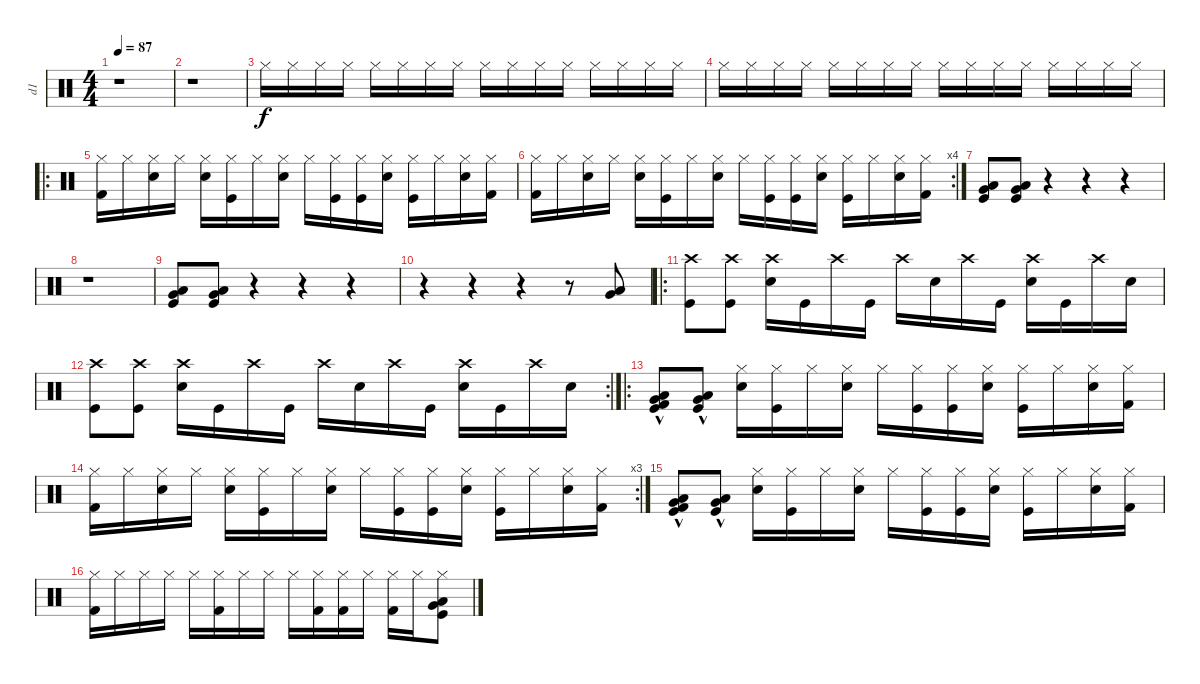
\track ("d1" "d1") {instrument percussion}
\staff {score}
\articulation defaults
\ts (4 4)
\tempo 87
\clef neutral
\ks c
r.1{dy f} |
r.1 |
"Hi-Hat (closed)".16 "Hi-Hat (closed)".16 "Hi-Hat (closed)".16 "Hi-Hat (closed)".16 "Hi-Hat (closed)".16 "Hi-Hat (closed)".16 "Hi-Hat (closed)".16 "Hi-Hat (closed)".16 "Hi-Hat (closed)".16 "Hi-Hat (closed)".16 "Hi-Hat (closed)".16 "Hi-Hat (closed)".16 "Hi-Hat (closed)".16 "Hi-Hat (closed)".16 "Hi-Hat (closed)".16 "Hi-Hat (closed)".16 |
"Hi-Hat (closed)".16 "Hi-Hat (closed)".16 "Hi-Hat (closed)".16 "Hi-Hat (closed)".16 "Hi-Hat (closed)".16 "Hi-Hat (closed)".16 "Hi-Hat (closed)".16 "Hi-Hat (closed)".16 "Hi-Hat (closed)".16 "Hi-Hat (closed)".16 "Hi-Hat (closed)".16 "Hi-Hat (closed)".16 "Hi-Hat (closed)".16 "Hi-Hat (closed)".16 "Hi-Hat (closed)".16 "Hi-Hat (closed)".16 |
\ro
("Hi-Hat (closed)" "Kick (hit) 2").16 "Hi-Hat (closed)".16 ("Hi-Hat (closed)" "Electric Snare (hit)").16 "Hi-Hat (closed)".16 ("Hi-Hat (closed)" "Electric Snare (hit)").16 ("Hi-Hat (closed)" "Kick (hit)").16 "Hi-Hat (closed)".16 ("Hi-Hat (closed)" "Electric Snare (hit)").16 "Hi-Hat (closed)".16 ("Hi-Hat (closed)" "Kick (hit)").16 ("Hi-Hat (closed)" "Kick (hit)").16 ("Hi-Hat (closed)" "Electric Snare (hit)").16 ("Hi-Hat (closed)" "Kick (hit)").16 "Hi-Hat (closed)".16 ("Hi-Hat (closed)" "Electric Snare (hit)").16 ("Hi-Hat (closed)" "Kick (hit) 2").16 |
\rc 4
("Hi-Hat (closed)" "Kick (hit) 2").16 "Hi-Hat (closed)".16 ("Hi-Hat (closed)" "Electric Snare (hit)").16 "Hi-Hat (closed)".16 ("Hi-Hat (closed)" "Electric Snare (hit)").16 ("Hi-Hat (closed)" "Kick (hit)").16 "Hi-Hat (closed)".16 ("Hi-Hat (closed)" "Electric Snare (hit)").16 "Hi-Hat (closed)".16 ("Hi-Hat (closed)" "Kick (hit)").16 ("Hi-Hat (closed)" "Kick (hit)").16 ("Hi-Hat (closed)" "Electric Snare (hit)").16 ("Hi-Hat (closed)" "Kick (hit)").16 "Hi-Hat (closed)".16 ("Hi-Hat (closed)" "Electric Snare (hit)").16 ("Hi-Hat (closed)" "Kick (hit) 2").16 |
("Kick (hit)" "Low Floor Tom (hit)" "Very Low Tom (hit)").8 ("Kick (hit)" "Low Floor Tom (hit)" "Very Low Tom (hit)").8 r.4 r.4 r.4 |
r.1 |
("Kick (hit)" "Low Floor Tom (hit)" "Very Low Tom (hit)").8 ("Kick (hit)" "Low Floor Tom (hit)" "Very Low Tom (hit)").8 r.4 r.4 r.4 |
r.4 r.4 r.4 r.8 ("Very Low Tom (hit)" "Low Floor Tom (hit)").8 |
\ro
("Crash high (hit)" "Kick (hit)").8 ("Crash high (hit)" "Kick (hit)").8 ("Crash high (hit)" "Snare (hit) 2").16 "Kick (hit)".16 "Crash high (hit)".16 "Kick (hit)".16 "Crash high (hit)".16 "Snare (hit) 2".16 "Crash high (hit)".16 "Kick (hit)".16 ("Snare (hit) 2" "Crash high (hit)").16 "Kick (hit)".16 "Crash high (hit)".16 "Snare (hit) 2".16 |
\rc 2
("Crash high (hit)" "Kick (hit)").8 ("Crash high (hit)" "Kick (hit)").8 ("Crash high (hit)" "Snare (hit) 2").16 "Kick (hit)".16 "Crash high (hit)".16 "Kick (hit)".16 "Crash high (hit)".16 "Snare (hit) 2".16 "Crash high (hit)".16 "Kick (hit)".16 ("Snare (hit) 2" "Crash high (hit)").16 "Kick (hit)".16 "Crash high (hit)".16 "Snare (hit) 2".16 |
\ro
("Kick (hit) 2"{hac} "Low Floor Tom (hit)"{hac} "Very Low Tom (hit)"{hac} "Kick (hit)"{hac}).8 ("Kick (hit)"{hac} "Low Floor Tom (hit)"{hac} "Very Low Tom (hit)"{hac}).8 ("Hi-Hat (closed)" "Electric Snare (hit)").16 ("Hi-Hat (closed)" "Kick (hit)").16 "Hi-Hat (closed)".16 ("Hi-Hat (closed)" "Electric Snare (hit)").16 "Hi-Hat (closed)".16 ("Hi-Hat (closed)" "Kick (hit)").16 ("Hi-Hat (closed)" "Kick (hit)").16 ("Hi-Hat (closed)" "Electric Snare (hit)").16 ("Hi-Hat (closed)" "Kick (hit)").16 "Hi-Hat (closed)".16 ("Hi-Hat (closed)" "Electric Snare (hit)").16 ("Hi-Hat (closed)" "Kick (hit) 2").16 |
\rc 3
("Hi-Hat (closed)" "Kick (hit) 2").16 "Hi-Hat (closed)".16 ("Hi-Hat (closed)" "Electric Snare (hit)").16 "Hi-Hat (closed)".16 ("Hi-Hat (closed)" "Electric Snare (hit)").16 ("Hi-Hat (closed)" "Kick (hit)").16 "Hi-Hat (closed)".16 ("Hi-Hat (closed)" "Electric Snare (hit)").16 "Hi-Hat (closed)".16 ("Hi-Hat (closed)" "Kick (hit)").16 ("Hi-Hat (closed)" "Kick (hit)").16 ("Hi-Hat (closed)" "Electric Snare (hit)").16 ("Hi-Hat (closed)" "Kick (hit)").16 "Hi-Hat (closed)".16 ("Hi-Hat (closed)" "Electric Snare (hit)").16 ("Hi-Hat (closed)" "Kick (hit) 2").16 |
("Kick (hit) 2"{hac} "Low Floor Tom (hit)"{hac} "Very Low Tom (hit)"{hac} "Kick (hit)"{hac}).8 ("Kick (hit)"{hac} "Low Floor Tom (hit)"{hac} "Very Low Tom (hit)"{hac}).8 ("Hi-Hat (closed)" "Electric Snare (hit)").16 ("Hi-Hat (closed)" "Kick (hit)").16 "Hi-Hat (closed)".16 ("Hi-Hat (closed)" "Electric Snare (hit)").16 "Hi-Hat (closed)".16 ("Hi-Hat (closed)" "Kick (hit)").16 ("Hi-Hat (closed)" "Kick (hit)").16 ("Hi-Hat (closed)" "Electric Snare (hit)").16 ("Hi-Hat (closed)" "Kick (hit)").16 "Hi-Hat (closed)".16 ("Hi-Hat (closed)" "Electric Snare (hit)").16 ("Hi-Hat (closed)" "Kick (hit) 2").16 |
("Hi-Hat (closed)" "Kick (hit) 2").16 "Hi-Hat (closed)".16 "Hi-Hat (closed)".16 "Hi-Hat (closed)".16 "Hi-Hat (closed)".16 ("Hi-Hat (closed)" "Kick (hit) 2").16 "Hi-Hat (closed)".16 "Hi-Hat (closed)".16 "Hi-Hat (closed)".16 ("Kick (hit) 2" "Hi-Hat (closed)").16 ("Hi-Hat (closed)" "Kick (hit) 2").16 "Hi-Hat (closed)".16 ("Hi-Hat (closed)" "Kick (hit) 2").16 "Hi-Hat (closed)".16 ("Hi-Hat (closed)" "Low Floor Tom (hit)" "Very Low Tom (hit)" "Kick (hit)").8
